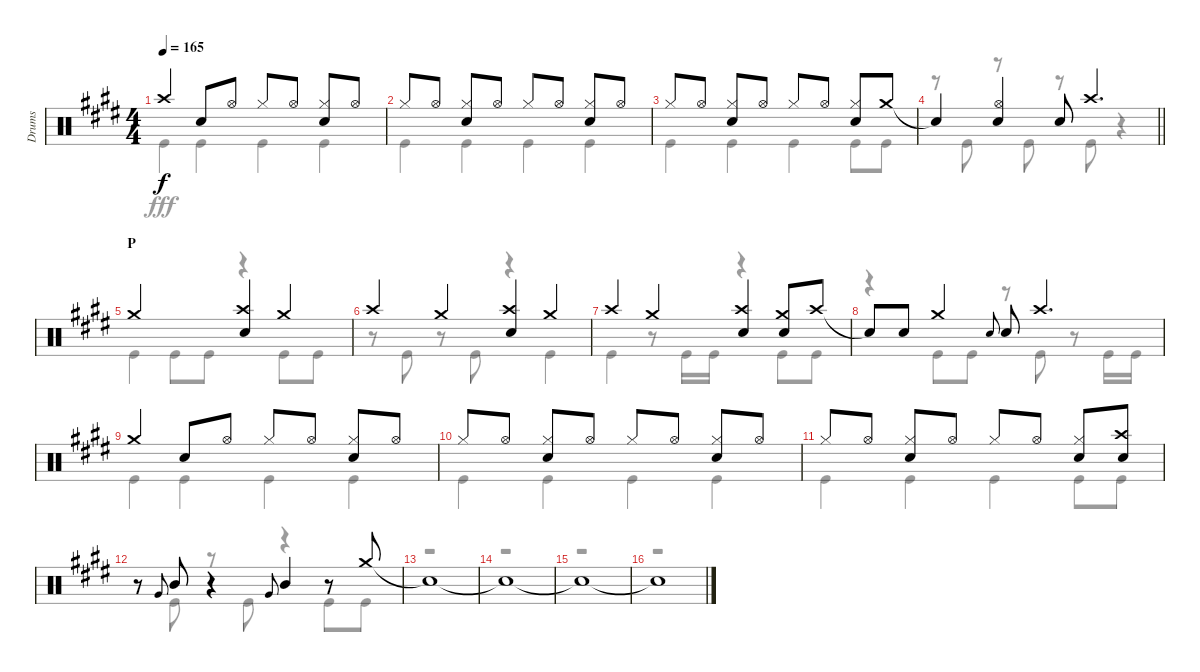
\track ("Drums" "Drums") {instrument percussion}
\staff {score}
\articulation defaults
\voice
\ts (4 4)
\tempo 165
\clef neutral
\ks e "Crash high (hit)".4{dy f} "Snare (hit) 2".8 "Hi-Hat (open)".8 "Hi-Hat (closed)".8 "Hi-Hat (open)".8
("Hi-Hat (closed)" "Snare (hit) 2").8 "Hi-Hat (open)".8 |
"Hi-Hat (closed)".8 "Hi-Hat (open)".8 ("Hi-Hat (closed)" "Snare (hit) 2").8 "Hi-Hat (open)".8 "Hi-Hat (closed)".8 "Hi-Hat (open)".8 ("Hi-Hat (closed)" "Snare (hit) 2").8 "Hi-Hat (open)".8 |
"Hi-Hat (closed)".8 "Hi-Hat (open)".8 ("Hi-Hat (closed)" "Snare (hit) 2").8 "Hi-Hat (open)".8 "Hi-Hat (closed)".8 "Hi-Hat (open)".8 ("Hi-Hat (closed)" "Snare (hit) 2").8 "Crash medium (hit)".8 |
\barLineRight lightlight "Snare (hit)"{t}.4
("Hi-Hat (open)" "Snare (hit) 2").4 "Snare (hit) 2".8 "Crash high (hit)".4{d} |
\section ("" "P")
"Crash medium (hit)".2 ("Crash high (hit)" "Snare (hit) 2").4 "Crash medium (hit)".4 |
"Crash high (hit)".4 "Crash medium (hit)".4 ("Crash high (hit)" "Snare (hit) 2").4 "Crash medium (hit)".4 |
"Crash high (hit)".4 "Crash medium (hit)".4 ("Crash high (hit)" "Snare (hit) 2").4 ("Crash medium (hit)" "Snare (hit) 2").8 "Crash high (hit)".8 |
"Snare (hit)"{t}.8 "Snare (hit) 2".8 "Crash medium (hit)".4 "Snare (hit) 2".8{gr onbeat} "Snare (hit) 2".8 "Crash high (hit)".4{d} |
"Crash medium (hit)".4 "Snare (hit) 2".8 "Hi-Hat (open)".8 "Hi-Hat (closed)".8 "Hi-Hat (open)".8 ("Hi-Hat (closed)" "Snare (hit) 2").8 "Hi-Hat (open)".8 |
"Hi-Hat (closed)".8 "Hi-Hat (open)".8 ("Hi-Hat (closed)" "Snare (hit) 2").8 "Hi-Hat (open)".8 "Hi-Hat (closed)".8 "Hi-Hat (open)".8 ("Hi-Hat (closed)" "Snare (hit) 2").8 "Hi-Hat (open)".8 |
"Hi-Hat (closed)".8 "Hi-Hat (open)".8 ("Hi-Hat (closed)" "Snare (hit) 2").8 "Hi-Hat (open)".8 "Hi-Hat (closed)".8 "Hi-Hat (open)".8 ("Hi-Hat (closed)" "Snare (hit) 2").8 ("Crash high (hit)" "Snare (hit) 2").8 |
r.8 "Very Low Tom (hit)".8{gr onbeat} "Mid Tom (hit)".8 r.4 "Very Low Tom (hit)".8{gr onbeat} "Mid Tom (hit)".4 r.8 "Crash medium (hit)".8 |
"Snare (hit)"{t}.1 |
"Snare (hit)"{t}.1 |
"Snare (hit)"{t}.1 |
"Snare (hit)"{t}.1
\voice
\clef neutral
\ottava regular
\simile none
\ks e "Kick (hit)".4{dy fff} "Kick (hit)".4 "Kick (hit)".4 "Kick (hit)".4
|
"Kick (hit)".4 "Kick (hit)".4 "Kick (hit)".4 "Kick (hit)".4 |
"Kick (hit)".4 "Kick (hit)".4 "Kick (hit)".4 "Kick (hit)".8 "Kick (hit)".8 |
\barLineRight lightlight
r.8 "Kick (hit)".8 r.8 "Kick (hit)".8 r.8 "Kick (hit)".8 r.4 |
"Kick (hit)".4 "Kick (hit)".8 "Kick (hit)".8 r.4 "Kick (hit)".8 "Kick (hit)".8 |
r.8 "Kick (hit)".8 r.8 "Kick (hit)".8 r.4 "Kick (hit)".4 |
"Kick (hit)".4 r.8 "Kick (hit)".16 "Kick (hit)".16 r.4 "Kick (hit)".8 "Kick (hit)".8 |
r.4 "Kick (hit)".8 "Kick (hit)".8 r.8 "Kick (hit)".8 r.8 "Kick (hit)".16 "Kick (hit)".16 |
"Kick (hit)".4 "Kick (hit)".4 "Kick (hit)".4 "Kick (hit)".4 |
"Kick (hit)".4 "Kick (hit)".4 "Kick (hit)".4 "Kick (hit)".4 |
"Kick (hit)".4 "Kick (hit)".4 "Kick (hit)".4 "Kick (hit)".8 "Kick (hit)".8 |
r.8 "Kick (hit)".8 r.8 "Kick (hit)".8 r.4 "Kick (hit)".8 "Kick (hit)".8 |
r.1 |
r.1 |
r.1 |
r.1
